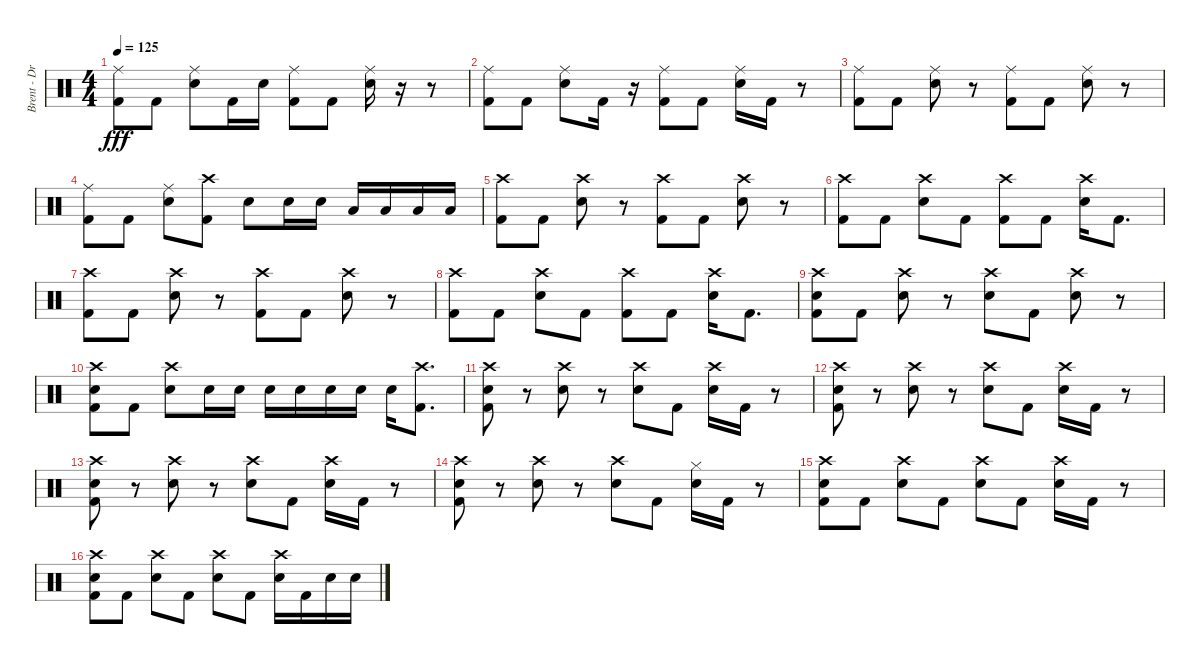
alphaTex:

\track ("Brent - Drums" "Brent - Dr") {instrument percussion}
\staff {score}
\articulation defaults
\ts (4 4)
\tempo 125
\clef neutral
\ks c
("Ride (middle)" "Kick (hit) 2").8{dy fff} "Kick (hit) 2".8 ("Ride (middle)" "Snare (hit) 2").8 "Kick (hit) 2".16 "Snare (hit) 2".16 ("Ride (middle)" "Kick (hit) 2").8 "Kick (hit) 2".8 ("Ride (middle)" "Snare (hit) 2").16 r.16 r.8 |
("Ride (middle)" "Kick (hit) 2").8 "Kick (hit) 2".8 ("Ride (middle)" "Snare (hit) 2").8 "Kick (hit) 2".16 r.16 ("Ride (middle)" "Kick (hit) 2").8 "Kick (hit) 2".8 ("Ride (middle)" "Snare (hit) 2").16 "Kick (hit) 2".16 r.8 |
("Ride (middle)" "Kick (hit) 2").8 "Kick (hit) 2".8 ("Ride (middle)" "Snare (hit) 2").8 r.8 ("Ride (middle)" "Kick (hit) 2").8 "Kick (hit) 2".8 ("Ride (middle)" "Snare (hit) 2").8 r.8 |
("Ride (middle)" "Kick (hit) 2").8 "Kick (hit) 2".8 ("Ride (middle)" "Snare (hit) 2").8 ("Crash high (hit)" "Kick (hit) 2").8 "Snare (hit) 2".8 "Snare (hit) 2".16 "Snare (hit) 2".16 "Low Tom (hit)".16 "Low Tom (hit)".16 "Low Floor Tom (hit)".16 "Low Floor Tom (hit)".16 |
("Crash high (hit)" "Kick (hit) 2").8 "Kick (hit) 2".8 ("Crash high (hit)" "Snare (hit) 2").8 r.8 ("Crash high (hit)" "Kick (hit) 2").8 "Kick (hit) 2".8 ("Crash high (hit)" "Snare (hit) 2").8 r.8 |
("Crash high (hit)" "Kick (hit) 2").8 "Kick (hit) 2".8 ("Crash high (hit)" "Snare (hit) 2").8 "Kick (hit) 2".8 ("Crash high (hit)" "Kick (hit) 2").8 "Kick (hit) 2".8 ("Crash high (hit)" "Snare (hit) 2").16 "Kick (hit) 2".8{d} |
("Crash high (hit)" "Kick (hit) 2").8 "Kick (hit) 2".8 ("Crash high (hit)" "Snare (hit) 2").8 r.8 ("Crash high (hit)" "Kick (hit) 2").8 "Kick (hit) 2".8 ("Crash high (hit)" "Snare (hit) 2").8 r.8 |
("Crash high (hit)" "Kick (hit) 2").8 "Kick (hit) 2".8 ("Crash high (hit)" "Snare (hit) 2").8 "Kick (hit) 2".8 ("Crash high (hit)" "Kick (hit) 2").8 "Kick (hit) 2".8 ("Crash high (hit)" "Snare (hit) 2").16 "Kick (hit) 2".8{d} |
("Crash high (hit)" "Snare (hit) 2" "Kick (hit) 2").8 "Kick (hit) 2".8 ("Crash high (hit)" "Snare (hit) 2").8 r.8 ("Crash high (hit)" "Snare (hit) 2").8 "Kick (hit) 2".8 ("Crash high (hit)" "Snare (hit) 2").8 r.8 |
("Crash high (hit)" "Snare (hit) 2" "Kick (hit) 2").8 "Kick (hit) 2".8 ("Crash high (hit)" "Snare (hit) 2").8 "Snare (hit) 2".16 "Snare (hit) 2".16 "Snare (hit) 2".16 "Snare (hit) 2".16 "Snare (hit) 2".16 "Snare (hit) 2".16 "Snare (hit) 2".16 ("Crash high (hit)" "Kick (hit) 2").8{d} |
("Crash high (hit)" "Snare (hit) 2" "Kick (hit) 2").8 r.8 ("Crash high (hit)" "Snare (hit) 2").8 r.8 ("Crash high (hit)" "Snare (hit) 2").8 "Kick (hit) 2".8 ("Crash high (hit)" "Snare (hit) 2").16 "Kick (hit) 2".16 r.8 |
("Crash high (hit)" "Snare (hit) 2" "Kick (hit) 2").8 r.8 ("Crash high (hit)" "Snare (hit) 2").8 r.8 ("Crash high (hit)" "Snare (hit) 2").8 "Kick (hit) 2".8 ("Crash high (hit)" "Snare (hit) 2").16 "Kick (hit) 2".16 r.8 |
("Crash high (hit)" "Snare (hit) 2" "Kick (hit) 2").8 r.8 ("Crash high (hit)" "Snare (hit) 2").8 r.8 ("Crash high (hit)" "Snare (hit) 2").8 "Kick (hit) 2".8 ("Crash high (hit)" "Snare (hit) 2").16 "Kick (hit) 2".16 r.8 |
("Crash high (hit)" "Snare (hit) 2" "Kick (hit) 2").8 r.8 ("Crash high (hit)" "Snare (hit) 2").8 r.8 ("Crash high (hit)" "Snare (hit) 2").8 "Kick (hit) 2".8 ("Hi-Hat (closed)" "Snare (hit) 2").16 "Kick (hit) 2".16 r.8 |
("Crash high (hit)" "Snare (hit) 2" "Kick (hit) 2").8 "Kick (hit) 2".8 ("Crash high (hit)" "Snare (hit) 2").8 "Kick (hit) 2".8 ("Crash high (hit)" "Snare (hit) 2").8 "Kick (hit) 2".8 ("Crash high (hit)" "Snare (hit) 2").16 "Kick (hit) 2".16 r.8 |
("Crash high (hit)" "Snare (hit) 2" "Kick (hit) 2").8 "Kick (hit) 2".8 ("Crash high (hit)" "Snare (hit) 2").8 "Kick (hit) 2".8 ("Crash high (hit)" "Snare (hit) 2").8 "Kick (hit) 2".8 ("Crash high (hit)" "Snare (hit) 2").16 "Kick (hit) 2".16 "Snare (hit) 2".16 "Snare (hit) 2".16
